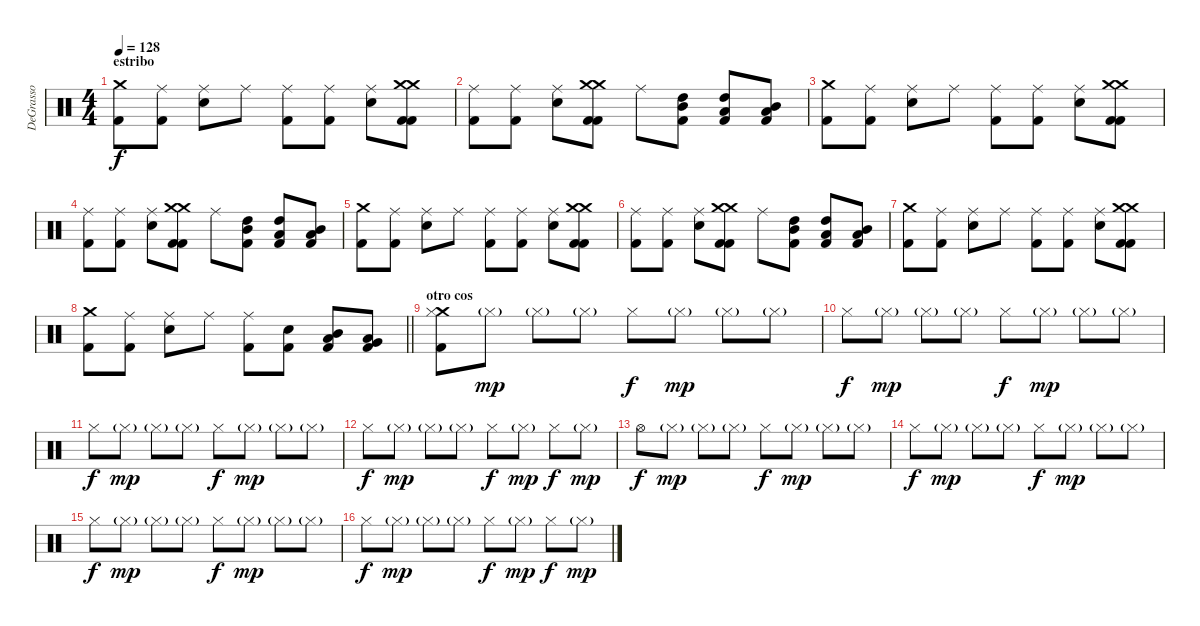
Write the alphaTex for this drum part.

\track ("DeGrasso" "DeGrasso") {instrument percussion}
\staff {score}
\articulation defaults
\ts (4 4)
\section ("" "estribo")
\tempo 128
\clef neutral
\ks c
("Crash medium (hit)" "Kick (hit) 2").8{dy f} ("Ride (middle)" "Kick (hit) 2").8 ("Ride (middle)" "Electric Snare (hit)").8 "Ride (middle)".8 ("Ride (middle)" "Kick (hit) 2").8 ("Ride (middle)" "Kick (hit) 2").8 ("Ride (middle)" "Electric Snare (hit)").8 ("Crash medium (hit)" "Crash medium (hit)" "Kick (hit) 2" "Kick (hit) 2").8 |
("Ride (middle)" "Kick (hit) 2").8 ("Ride (middle)" "Kick (hit) 2").8 ("Ride (middle)" "Electric Snare (hit)").8 ("Crash medium (hit)" "Crash medium (hit)" "Kick (hit) 2" "Kick (hit) 2").8 "Ride (middle)".8 ("High Tom (hit)" "Mid Tom (hit)" "Kick (hit) 2").8 ("High Tom (hit)" "Low Tom (hit)" "Kick (hit) 2").8 ("Mid Tom (hit)" "Low Tom (hit)" "Kick (hit) 2").8 |
("Crash medium (hit)" "Kick (hit) 2").8 ("Ride (middle)" "Kick (hit) 2").8 ("Ride (middle)" "Electric Snare (hit)").8 "Ride (middle)".8 ("Ride (middle)" "Kick (hit) 2").8 ("Ride (middle)" "Kick (hit) 2").8 ("Ride (middle)" "Electric Snare (hit)").8 ("Crash medium (hit)" "Crash medium (hit)" "Kick (hit) 2" "Kick (hit) 2").8 |
("Ride (middle)" "Kick (hit) 2").8 ("Ride (middle)" "Kick (hit) 2").8 ("Ride (middle)" "Electric Snare (hit)").8 ("Crash medium (hit)" "Crash medium (hit)" "Kick (hit) 2" "Kick (hit) 2").8 "Ride (middle)".8 ("High Tom (hit)" "Mid Tom (hit)" "Kick (hit) 2").8 ("High Tom (hit)" "Low Tom (hit)" "Kick (hit) 2").8 ("Mid Tom (hit)" "Low Tom (hit)" "Kick (hit) 2").8 |
("Crash medium (hit)" "Kick (hit) 2").8 ("Ride (middle)" "Kick (hit) 2").8 ("Ride (middle)" "Electric Snare (hit)").8 "Ride (middle)".8 ("Ride (middle)" "Kick (hit) 2").8 ("Ride (middle)" "Kick (hit) 2").8 ("Ride (middle)" "Electric Snare (hit)").8 ("Crash medium (hit)" "Crash medium (hit)" "Kick (hit) 2" "Kick (hit) 2").8 |
("Ride (middle)" "Kick (hit) 2").8 ("Ride (middle)" "Kick (hit) 2").8 ("Ride (middle)" "Electric Snare (hit)").8 ("Crash medium (hit)" "Crash medium (hit)" "Kick (hit) 2" "Kick (hit) 2").8 "Ride (middle)".8 ("High Tom (hit)" "Mid Tom (hit)" "Kick (hit) 2").8 ("High Tom (hit)" "Low Tom (hit)" "Kick (hit) 2").8 ("Mid Tom (hit)" "Low Tom (hit)" "Kick (hit) 2").8 |
("Crash medium (hit)" "Kick (hit) 2").8 ("Ride (middle)" "Kick (hit) 2").8 ("Ride (middle)" "Electric Snare (hit)").8 "Ride (middle)".8 ("Ride (middle)" "Kick (hit) 2").8 ("Ride (middle)" "Kick (hit) 2").8 ("Ride (middle)" "Electric Snare (hit)").8 ("Crash medium (hit)" "Crash medium (hit)" "Kick (hit) 2" "Kick (hit) 2").8 |
\barLineRight lightlight
("Crash medium (hit)" "Kick (hit) 2").8 ("Ride (middle)" "Kick (hit) 2").8 ("Ride (middle)" "Electric Snare (hit)").8 "Ride (middle)".8 ("Ride (middle)" "Kick (hit) 2").8 ("Electric Snare (hit)" "Kick (hit) 2").8 ("Mid Tom (hit)" "Low Tom (hit)" "Kick (hit) 2").8 ("Low Tom (hit)" "Very Low Tom (hit)" "Kick (hit) 2").8 |
\section ("" "otro cos")
("Crash medium (hit)" "Hi-Hat (closed)" "Kick (hit) 2").8 "Hi-Hat (closed)"{g}.8{dy mp} "Hi-Hat (closed)"{g}.8 "Hi-Hat (closed)"{g}.8 "Hi-Hat (closed)".8{dy f} "Hi-Hat (closed)"{g}.8{dy mp} "Hi-Hat (closed)"{g}.8 "Hi-Hat (closed)"{g}.8 |
"Hi-Hat (closed)".8{dy f} "Hi-Hat (closed)"{g}.8{dy mp} "Hi-Hat (closed)"{g}.8 "Hi-Hat (closed)"{g}.8 "Hi-Hat (closed)".8{dy f} "Hi-Hat (closed)"{g}.8{dy mp} "Hi-Hat (closed)"{g}.8 "Hi-Hat (closed)"{g}.8 |
"Hi-Hat (closed)".8{dy f} "Hi-Hat (closed)"{g}.8{dy mp} "Hi-Hat (closed)"{g}.8 "Hi-Hat (closed)"{g}.8 "Hi-Hat (closed)".8{dy f} "Hi-Hat (closed)"{g}.8{dy mp} "Hi-Hat (closed)"{g}.8 "Hi-Hat (closed)"{g}.8 |
"Hi-Hat (closed)".8{dy f} "Hi-Hat (closed)"{g}.8{dy mp} "Hi-Hat (closed)"{g}.8 "Hi-Hat (closed)"{g}.8 "Hi-Hat (closed)".8{dy f} "Hi-Hat (closed)"{g}.8{dy mp} "Hi-Hat (closed)".8{dy f} "Hi-Hat (closed)"{g}.8{dy mp} |
"Hi-Hat (open)".8{dy f} "Hi-Hat (closed)"{g}.8{dy mp} "Hi-Hat (closed)"{g}.8 "Hi-Hat (closed)"{g}.8 "Hi-Hat (closed)".8{dy f} "Hi-Hat (closed)"{g}.8{dy mp} "Hi-Hat (closed)"{g}.8 "Hi-Hat (closed)"{g}.8 |
"Hi-Hat (closed)".8{dy f} "Hi-Hat (closed)"{g}.8{dy mp} "Hi-Hat (closed)"{g}.8 "Hi-Hat (closed)"{g}.8 "Hi-Hat (closed)".8{dy f} "Hi-Hat (closed)"{g}.8{dy mp} "Hi-Hat (closed)"{g}.8 "Hi-Hat (closed)"{g}.8 |
"Hi-Hat (closed)".8{dy f} "Hi-Hat (closed)"{g}.8{dy mp} "Hi-Hat (closed)"{g}.8 "Hi-Hat (closed)"{g}.8 "Hi-Hat (closed)".8{dy f} "Hi-Hat (closed)"{g}.8{dy mp} "Hi-Hat (closed)"{g}.8 "Hi-Hat (closed)"{g}.8 |
"Hi-Hat (closed)".8{dy f} "Hi-Hat (closed)"{g}.8{dy mp} "Hi-Hat (closed)"{g}.8 "Hi-Hat (closed)"{g}.8 "Hi-Hat (closed)".8{dy f} "Hi-Hat (closed)"{g}.8{dy mp} "Hi-Hat (closed)".8{dy f} "Hi-Hat (closed)"{g}.8{dy mp}
